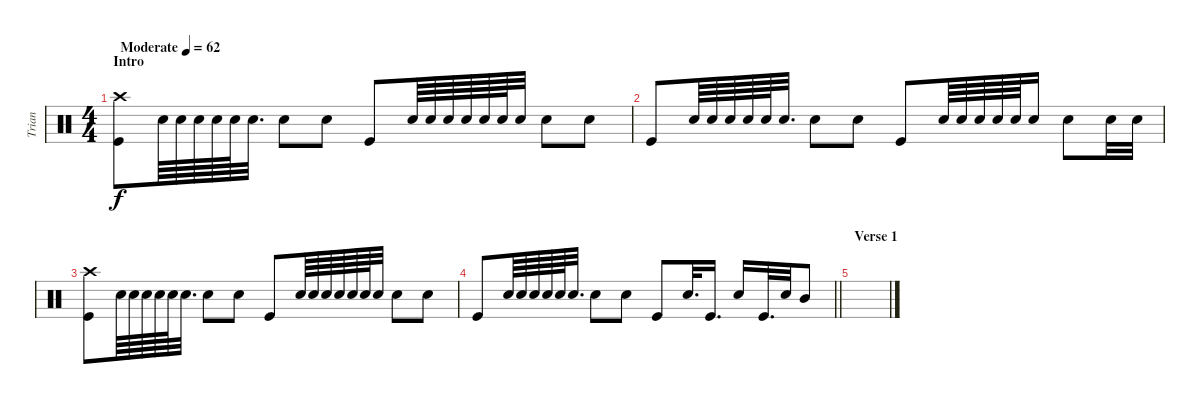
\track ("Trian" "Trian") {instrument percussion}
\staff {score}
\articulation defaults
\ts (4 4)
\section ("" "Intro")
\tempo (62 "Moderate")
\clef neutral
\ks aminor
("Crash high (hit)" "Kick (hit)").8{dy f} "Snare (hit) 2".64 "Snare (hit) 2".64 "Snare (hit) 2".64 "Snare (hit) 2".64 "Snare (hit) 2".64 "Snare (hit) 2".32{d} "Electric Snare (hit)".8 "Electric Snare (hit)".8 "Kick (hit)".8 "Snare (hit) 2".64 "Snare (hit) 2".64 "Snare (hit) 2".64 "Snare (hit) 2".64 "Snare (hit) 2".64 "Snare (hit) 2".64 "Snare (hit) 2".32 "Electric Snare (hit)".8 "Electric Snare (hit)".8 |
"Kick (hit)".8 "Snare (hit) 2".64 "Snare (hit) 2".64 "Snare (hit) 2".64 "Snare (hit) 2".64 "Snare (hit) 2".64 "Snare (hit) 2".32{d} "Electric Snare (hit)".8 "Electric Snare (hit)".8 "Kick (hit)".8 "Snare (hit) 2".64 "Snare (hit) 2".64 "Snare (hit) 2".64 "Snare (hit) 2".64 "Snare (hit) 2".64 "Snare (hit) 2".16 "Electric Snare (hit)".8 "Electric Snare (hit)".32 "Electric Snare (hit)".32 |
("Crash high (hit)" "Kick (hit)").8 "Snare (hit) 2".64 "Snare (hit) 2".64 "Snare (hit) 2".64 "Snare (hit) 2".64 "Snare (hit) 2".64 "Snare (hit) 2".32{d} "Electric Snare (hit)".8 "Electric Snare (hit)".8 "Kick (hit)".8 "Snare (hit) 2".64 "Snare (hit) 2".64 "Snare (hit) 2".64 "Snare (hit) 2".64 "Snare (hit) 2".64 "Snare (hit) 2".64 "Snare (hit) 2".32 "Electric Snare (hit)".8 "Electric Snare (hit)".8 |
\barLineRight lightlight "Kick (hit)".8 "Snare (hit) 2".64 "Snare (hit) 2".64 "Snare (hit) 2".64 "Snare (hit) 2".64 "Snare (hit) 2".64 "Snare (hit) 2".32{d} "Electric Snare (hit)".8 "Electric Snare (hit)".8 "Kick (hit)".8 "Snare (hit) 2".32{d} "Kick (hit)".16{d} "Electric Snare (hit)".16 "Kick (hit)".32{d} "Electric Snare (hit)".32 "Mid Tom (hit)".8
|
\section ("" "Verse 1")
